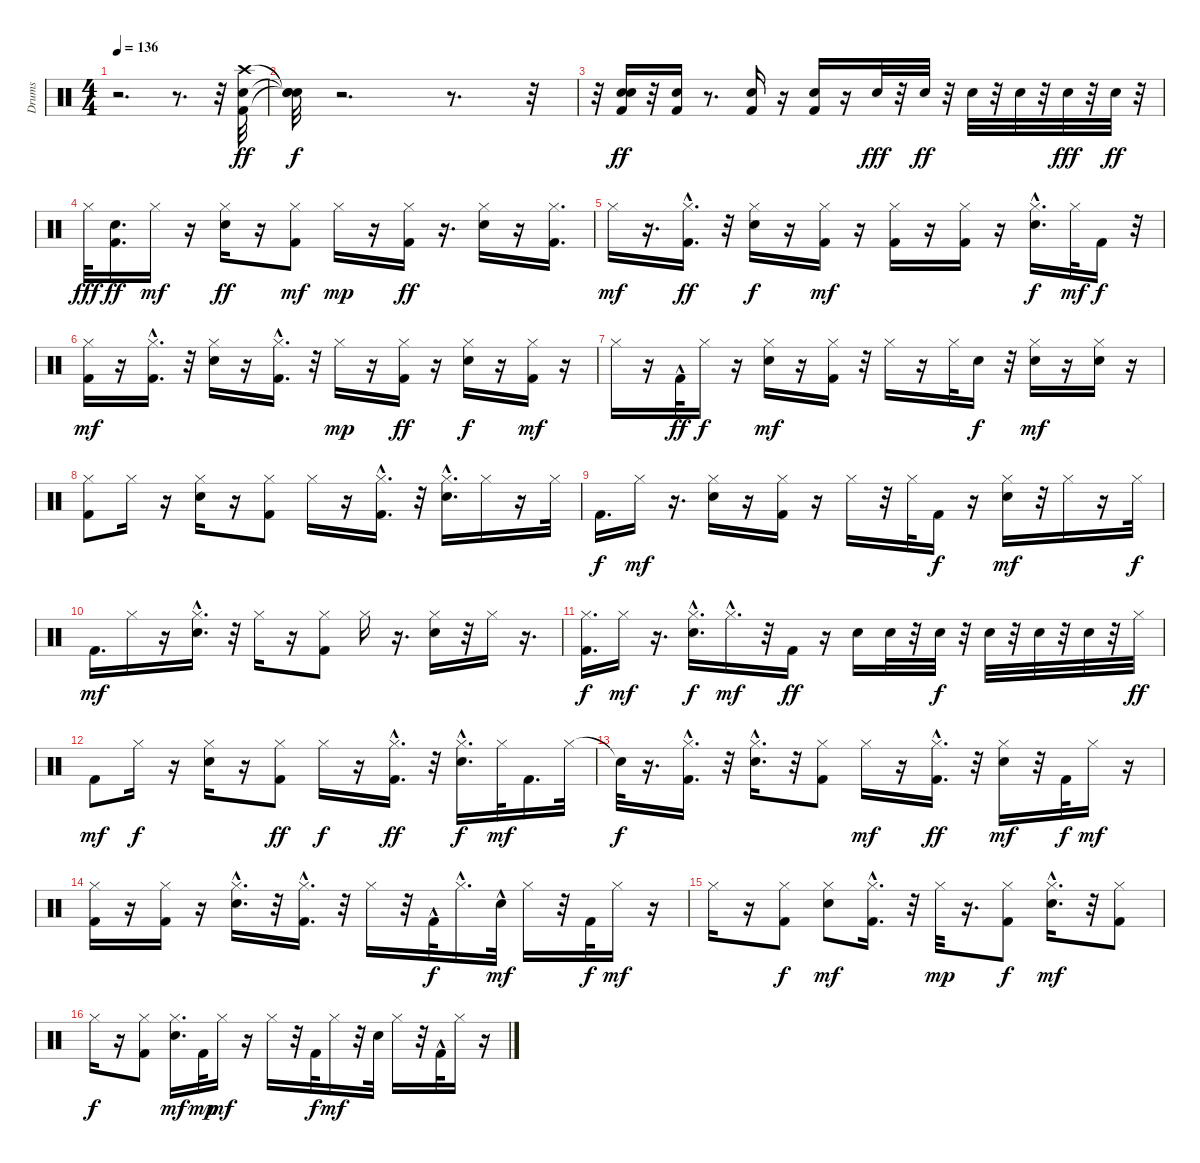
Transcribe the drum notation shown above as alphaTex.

\track ("Drums" "Drums") {instrument percussion}
\staff {score}
\articulation defaults
\ts (4 4)
\tempo 136
\clef neutral
\ks c
r.2{d dy ff} r.8{d} r.32 ("Kick (hit) 2" "Snare (hit) 2" "Crash high (hit)").32 |
("Snare (hit)"{t} "Snare (hit)"{t} "Snare (hit)"{t}).32{dy f} r.2{d} r.8{d} r.32 |
r.32 ("Kick (hit) 2" "Snare (hit) 2" "Electric Snare (hit)").16{dy ff} r.32 ("Kick (hit) 2" "Snare (hit) 2").16 r.8{d} ("Snare (hit) 2" "Kick (hit) 2").16 r.16 ("Kick (hit) 2" "Snare (hit) 2").16 r.16 "Snare (hit) 2".32{dy fff} r.32 "Snare (hit) 2".32{dy ff} r.32 "Snare (hit) 2".32 r.32 "Snare (hit) 2".32 r.32 "Snare (hit) 2".32{dy fff} r.32 "Snare (hit) 2".32{dy ff} r.32 |
"Hi-Hat (closed)".32{dy fff} ("Kick (hit) 2" "Snare (hit) 2").16{d dy ff} "Hi-Hat (closed)".16{dy mf} r.16 ("Snare (hit) 2" "Hi-Hat (closed)").16{dy ff} r.16 ("Kick (hit) 2" "Hi-Hat (closed)").8{dy mf} "Hi-Hat (closed)".16{dy mp} r.16 ("Kick (hit) 2" "Hi-Hat (closed)").16{dy ff} r.16{d} ("Hi-Hat (closed)" "Snare (hit) 2").16 r.16 ("Hi-Hat (closed)" "Kick (hit) 2").16{d} |
"Hi-Hat (closed)".16{dy mf} r.16{d} ("Hi-Hat (closed)" "Kick (hit) 2"{hac}).16{d dy ff} r.32 ("Snare (hit) 2" "Hi-Hat (closed)").16{dy f} r.16 ("Hi-Hat (closed)" "Kick (hit) 2").16{dy mf} r.16 ("Hi-Hat (closed)" "Kick (hit) 2").16 r.16 ("Hi-Hat (closed)" "Kick (hit) 2").16 r.16 ("Hi-Hat (closed)" "Snare (hit) 2"{hac}).16{d dy f} "Hi-Hat (closed)".32{dy mf} "Kick (hit) 2".16{dy f} r.32 |
("Hi-Hat (closed)" "Kick (hit) 2").16{dy mf} r.16 ("Kick (hit) 2"{hac} "Hi-Hat (closed)").16{d} r.32 ("Snare (hit) 2" "Hi-Hat (closed)").16 r.16 ("Hi-Hat (closed)" "Kick (hit) 2"{hac}).16{d} r.32 "Hi-Hat (closed)".16{dy mp} r.16 ("Kick (hit) 2" "Hi-Hat (closed)").16{dy ff} r.16 ("Snare (hit) 2" "Hi-Hat (closed)").16{dy f} r.16 ("Kick (hit) 2" "Hi-Hat (closed)").16{dy mf} r.16 |
"Hi-Hat (closed)".16 r.16 "Kick (hit) 2"{hac}.32{dy ff} "Hi-Hat (closed)".16{dy f} r.16 ("Hi-Hat (closed)" "Snare (hit) 2").16{dy mf} r.16 ("Hi-Hat (closed)" "Kick (hit) 2").16 r.32 "Hi-Hat (closed)".16 r.16 "Hi-Hat (closed)".32 "Snare (hit) 2".16{dy f} r.32 ("Hi-Hat (closed)" "Snare (hit) 2").16{dy mf} r.16 ("Hi-Hat (closed)" "Snare (hit) 2").16 r.16 |
("Kick (hit) 2" "Hi-Hat (closed)").8 "Hi-Hat (closed)".16 r.16 ("Snare (hit) 2" "Hi-Hat (closed)").16 r.16 ("Kick (hit) 2" "Hi-Hat (closed)").8 "Hi-Hat (closed)".16 r.16 ("Kick (hit) 2"{hac} "Hi-Hat (closed)").16{d} r.32 ("Snare (hit) 2"{hac} "Hi-Hat (closed)").16{d} "Hi-Hat (closed)".16 r.16 "Hi-Hat (closed)".32 |
"Kick (hit) 2".16{d dy f} "Hi-Hat (closed)".16{dy mf} r.16{d} ("Snare (hit) 2" "Hi-Hat (closed)").16 r.16 ("Hi-Hat (closed)" "Kick (hit) 2").16 r.16 "Hi-Hat (closed)".16 r.32 "Hi-Hat (closed)".32 "Kick (hit) 2".16{dy f} r.16 ("Hi-Hat (closed)" "Snare (hit) 2").16{dy mf} r.32 "Hi-Hat (closed)".16 r.16 "Hi-Hat (closed)".32{dy f} |
"Kick (hit) 2".16{d dy mf} "Hi-Hat (closed)".16 r.16 ("Snare (hit) 2"{hac} "Hi-Hat (closed)").16{d} r.32 "Hi-Hat (closed)".16 r.16 ("Hi-Hat (closed)" "Kick (hit) 2").8 "Hi-Hat (closed)".16 r.16{d} ("Hi-Hat (closed)" "Snare (hit) 2").16 r.32 "Hi-Hat (closed)".16 r.16{d} |
("Hi-Hat (closed)" "Kick (hit) 2").16{d dy f} "Hi-Hat (closed)".16{dy mf} r.16{d} ("Hi-Hat (closed)" "Snare (hit) 2"{hac}).16{d dy f} "Hi-Hat (closed)"{hac}.16{d dy mf} r.32 "Kick (hit) 2".16{dy ff} r.16 "Snare (hit) 2".16 "Snare (hit) 2".32 r.32 "Snare (hit) 2".32{dy f} r.32 "Snare (hit) 2".32 r.32 "Snare (hit) 2".32 r.32 "Snare (hit) 2".32 r.32 "Hi-Hat (closed)".32{dy ff} |
"Kick (hit) 2".8{dy mf} "Hi-Hat (closed)".16{dy f} r.16 ("Snare (hit) 2" "Hi-Hat (closed)").16 r.16 ("Kick (hit) 2" "Hi-Hat (closed)").8{dy ff} "Hi-Hat (closed)".16{dy f} r.16 ("Kick (hit) 2"{hac} "Hi-Hat (closed)").16{d dy ff} r.32 ("Snare (hit) 2"{hac} "Hi-Hat (closed)").16{d dy f} "Hi-Hat (closed)".32{dy mf} "Kick (hit) 2".16{d} "Hi-Hat (closed)".32 |
"Snare (hit)"{t}.32{dy f} r.16{d} ("Kick (hit) 2"{hac} "Hi-Hat (closed)").16{d} r.32 ("Snare (hit) 2"{hac} "Hi-Hat (closed)").16{d} r.32 ("Hi-Hat (closed)" "Kick (hit) 2").8 "Hi-Hat (closed)".16{dy mf} r.16 ("Kick (hit) 2"{hac} "Hi-Hat (closed)").16{d dy ff} r.32 ("Snare (hit) 2" "Hi-Hat (closed)").16{dy mf} r.32 "Kick (hit) 2".32{dy f} "Hi-Hat (closed)".16{dy mf} r.16 |
("Hi-Hat (closed)" "Kick (hit) 2").16 r.16 ("Kick (hit) 2" "Hi-Hat (closed)").16 r.16 ("Snare (hit) 2"{hac} "Hi-Hat (closed)").16{d} r.32 ("Kick (hit) 2"{hac} "Hi-Hat (closed)").16{d} r.32 "Hi-Hat (closed)".16 r.32 "Kick (hit) 2"{hac}.32{dy f} "Hi-Hat (closed)"{hac}.16{d} "Snare (hit) 2"{hac}.32{dy mf} "Hi-Hat (closed)".16 r.32 "Kick (hit) 2".32{dy f} "Hi-Hat (closed)".16{dy mf} r.16 |
"Hi-Hat (closed)".16 r.16 ("Kick (hit) 2" "Hi-Hat (closed)").8{dy f} ("Snare (hit) 2" "Hi-Hat (closed)").8{dy mf} ("Kick (hit) 2"{hac} "Hi-Hat (closed)").16{d} r.32 "Hi-Hat (closed)".32{dy mp} r.16{d} ("Kick (hit) 2" "Hi-Hat (closed)").8{dy f} ("Hi-Hat (closed)" "Snare (hit) 2"{hac}).16{d dy mf} r.32 ("Kick (hit) 2" "Hi-Hat (closed)").8 |
"Hi-Hat (closed)".16{dy f} r.16 ("Kick (hit) 2" "Hi-Hat (closed)").8 ("Hi-Hat (closed)" "Snare (hit) 2").16{d dy mf} "Kick (hit) 2".32{dy mp} "Hi-Hat (closed)".16{dy mf} r.16 "Hi-Hat (closed)".16 r.32 "Kick (hit) 2".32{dy f} "Hi-Hat (closed)".16{dy mf} r.32 "Snare (hit) 2".32 "Hi-Hat (closed)".16 r.32 "Kick (hit) 2"{hac}.32 "Hi-Hat (closed)".16 r.16
